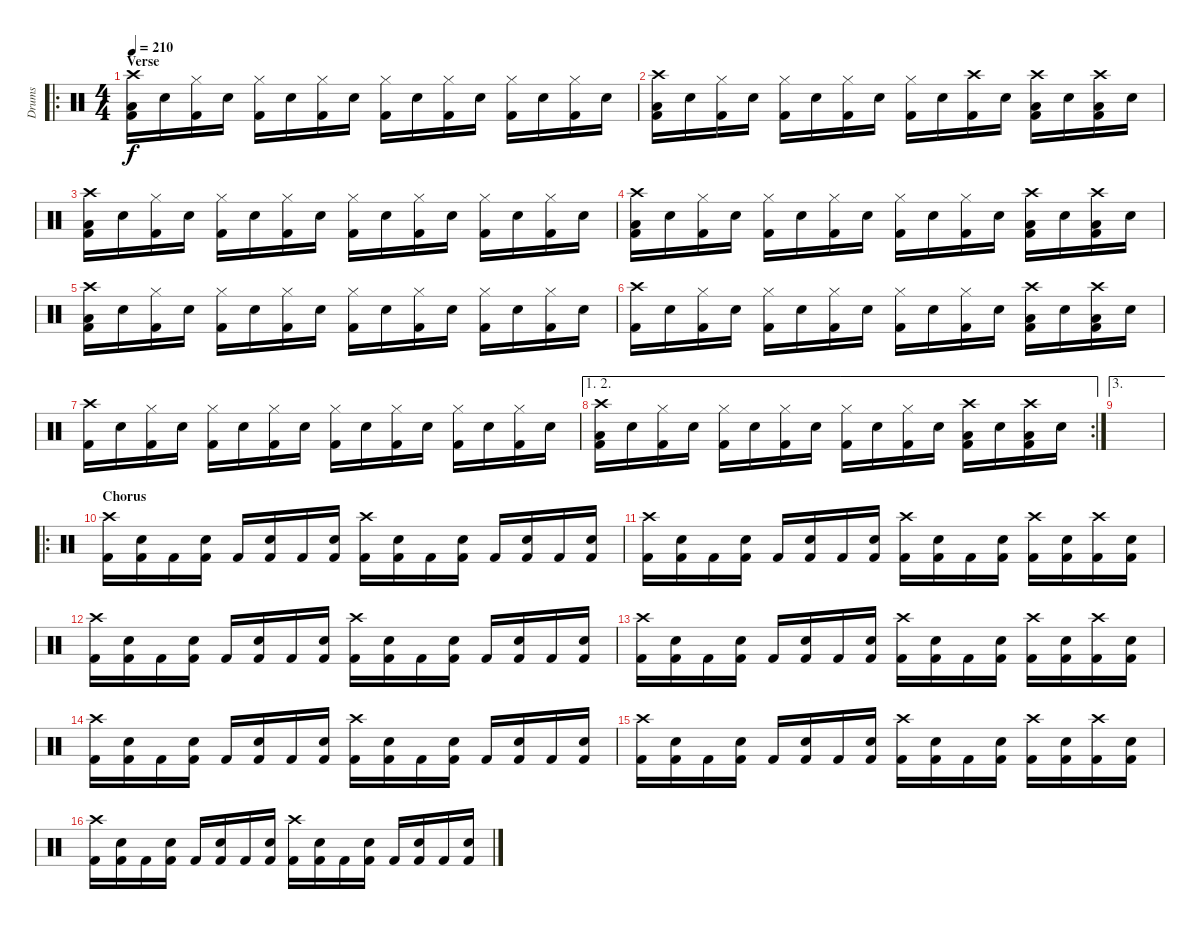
\track ("Drums" "Drums") {instrument percussion}
\staff {score}
\articulation defaults
\ro
\ts (4 4)
\section ("" "Verse")
\tempo 210
\clef neutral
\ks c
("Crash high (hit)" "Low Floor Tom (hit)" "Kick (hit) 2").16{dy f} "Snare (hit) 2".16 ("Hi-Hat (closed)" "Kick (hit) 2").16 "Snare (hit) 2".16 ("Hi-Hat (closed)" "Kick (hit) 2").16 "Snare (hit) 2".16 ("Hi-Hat (closed)" "Kick (hit) 2").16 "Snare (hit) 2".16 ("Hi-Hat (closed)" "Kick (hit) 2").16 "Snare (hit) 2".16 ("Hi-Hat (closed)" "Kick (hit) 2").16 "Snare (hit) 2".16 ("Hi-Hat (closed)" "Kick (hit) 2").16 "Snare (hit) 2".16 ("Hi-Hat (closed)" "Kick (hit) 2").16 "Snare (hit) 2".16 |
("Crash high (hit)" "Low Floor Tom (hit)" "Kick (hit) 2").16 "Snare (hit) 2".16 ("Hi-Hat (closed)" "Kick (hit) 2").16 "Snare (hit) 2".16 ("Hi-Hat (closed)" "Kick (hit) 2").16 "Snare (hit) 2".16 ("Hi-Hat (closed)" "Kick (hit) 2").16 "Snare (hit) 2".16 ("Hi-Hat (closed)" "Kick (hit) 2").16 "Snare (hit) 2".16 ("Crash high (hit)" "Kick (hit) 2").16 "Snare (hit) 2".16 ("Crash high (hit)" "Low Floor Tom (hit)" "Kick (hit) 2").16 "Snare (hit) 2".16 ("Crash high (hit)" "Low Floor Tom (hit)" "Kick (hit) 2").16 "Snare (hit) 2".16 |
("Crash high (hit)" "Low Floor Tom (hit)" "Kick (hit) 2").16 "Snare (hit) 2".16 ("Hi-Hat (closed)" "Kick (hit) 2").16 "Snare (hit) 2".16 ("Hi-Hat (closed)" "Kick (hit) 2").16 "Snare (hit) 2".16 ("Hi-Hat (closed)" "Kick (hit) 2").16 "Snare (hit) 2".16 ("Hi-Hat (closed)" "Kick (hit) 2").16 "Snare (hit) 2".16 ("Hi-Hat (closed)" "Kick (hit) 2").16 "Snare (hit) 2".16 ("Hi-Hat (closed)" "Kick (hit) 2").16 "Snare (hit) 2".16 ("Hi-Hat (closed)" "Kick (hit) 2").16 "Snare (hit) 2".16 |
("Crash high (hit)" "Low Floor Tom (hit)" "Kick (hit) 2").16 "Snare (hit) 2".16 ("Hi-Hat (closed)" "Kick (hit) 2").16 "Snare (hit) 2".16 ("Hi-Hat (closed)" "Kick (hit) 2").16 "Snare (hit) 2".16 ("Hi-Hat (closed)" "Kick (hit) 2").16 "Snare (hit) 2".16 ("Hi-Hat (closed)" "Kick (hit) 2").16 "Snare (hit) 2".16 ("Hi-Hat (closed)" "Kick (hit) 2").16 "Snare (hit) 2".16 ("Crash high (hit)" "Low Floor Tom (hit)" "Kick (hit) 2").16 "Snare (hit) 2".16 ("Crash high (hit)" "Low Floor Tom (hit)" "Kick (hit) 2").16 "Snare (hit) 2".16 |
("Crash high (hit)" "Low Floor Tom (hit)" "Kick (hit) 2").16 "Snare (hit) 2".16 ("Hi-Hat (closed)" "Kick (hit) 2").16 "Snare (hit) 2".16 ("Hi-Hat (closed)" "Kick (hit) 2").16 "Snare (hit) 2".16 ("Hi-Hat (closed)" "Kick (hit) 2").16 "Snare (hit) 2".16 ("Hi-Hat (closed)" "Kick (hit) 2").16 "Snare (hit) 2".16 ("Hi-Hat (closed)" "Kick (hit) 2").16 "Snare (hit) 2".16 ("Hi-Hat (closed)" "Kick (hit) 2").16 "Snare (hit) 2".16 ("Hi-Hat (closed)" "Kick (hit) 2").16 "Snare (hit) 2".16 |
("Crash high (hit)" "Kick (hit) 2").16 "Snare (hit) 2".16 ("Hi-Hat (closed)" "Kick (hit) 2").16 "Snare (hit) 2".16 ("Hi-Hat (closed)" "Kick (hit) 2").16 "Snare (hit) 2".16 ("Hi-Hat (closed)" "Kick (hit) 2").16 "Snare (hit) 2".16 ("Hi-Hat (closed)" "Kick (hit) 2").16 "Snare (hit) 2".16 ("Hi-Hat (closed)" "Kick (hit) 2").16 "Snare (hit) 2".16 ("Crash high (hit)" "Low Floor Tom (hit)" "Kick (hit) 2").16 "Snare (hit) 2".16 ("Crash high (hit)" "Low Floor Tom (hit)" "Kick (hit) 2").16 "Snare (hit) 2".16 |
("Crash high (hit)" "Kick (hit) 2").16 "Snare (hit) 2".16 ("Hi-Hat (closed)" "Kick (hit) 2").16 "Snare (hit) 2".16 ("Hi-Hat (closed)" "Kick (hit) 2").16 "Snare (hit) 2".16 ("Hi-Hat (closed)" "Kick (hit) 2").16 "Snare (hit) 2".16 ("Hi-Hat (closed)" "Kick (hit) 2").16 "Snare (hit) 2".16 ("Hi-Hat (closed)" "Kick (hit) 2").16 "Snare (hit) 2".16 ("Hi-Hat (closed)" "Kick (hit) 2").16 "Snare (hit) 2".16 ("Hi-Hat (closed)" "Kick (hit) 2").16 "Snare (hit) 2".16 |
\ae (1 2)
\rc 2
("Crash high (hit)" "Low Floor Tom (hit)" "Kick (hit) 2").16 "Snare (hit) 2".16 ("Hi-Hat (closed)" "Kick (hit) 2").16 "Snare (hit) 2".16 ("Hi-Hat (closed)" "Kick (hit) 2").16 "Snare (hit) 2".16 ("Hi-Hat (closed)" "Kick (hit) 2").16 "Snare (hit) 2".16 ("Hi-Hat (closed)" "Kick (hit) 2").16 "Snare (hit) 2".16 ("Hi-Hat (closed)" "Kick (hit) 2").16 "Snare (hit) 2".16 ("Crash high (hit)" "Low Floor Tom (hit)" "Kick (hit) 2").16 "Snare (hit) 2".16 ("Crash high (hit)" "Low Floor Tom (hit)" "Kick (hit) 2").16 "Snare (hit) 2".16 |
\ae 3
|
\ro
\section ("" "Chorus")
("Crash high (hit)" "Kick (hit) 2").16 ("Snare (hit) 2" "Kick (hit) 2").16 "Kick (hit) 2".16 ("Snare (hit) 2" "Kick (hit) 2").16 "Kick (hit) 2".16 ("Snare (hit) 2" "Kick (hit) 2").16 "Kick (hit) 2".16 ("Snare (hit) 2" "Kick (hit) 2").16 ("Crash high (hit)" "Kick (hit) 2").16 ("Snare (hit) 2" "Kick (hit) 2").16 "Kick (hit) 2".16 ("Snare (hit) 2" "Kick (hit) 2").16 "Kick (hit) 2".16 ("Snare (hit) 2" "Kick (hit) 2").16 "Kick (hit) 2".16 ("Snare (hit) 2" "Kick (hit) 2").16 |
("Crash high (hit)" "Kick (hit) 2").16 ("Snare (hit) 2" "Kick (hit) 2").16 "Kick (hit) 2".16 ("Snare (hit) 2" "Kick (hit) 2").16 "Kick (hit) 2".16 ("Snare (hit) 2" "Kick (hit) 2").16 "Kick (hit) 2".16 ("Snare (hit) 2" "Kick (hit) 2").16 ("Crash high (hit)" "Kick (hit) 2").16 ("Snare (hit) 2" "Kick (hit) 2").16 "Kick (hit) 2".16 ("Snare (hit) 2" "Kick (hit) 2").16 ("Crash high (hit)" "Kick (hit) 2").16 ("Snare (hit) 2" "Kick (hit) 2").16 ("Crash high (hit)" "Kick (hit) 2").16 ("Snare (hit) 2" "Kick (hit) 2").16 |
("Crash high (hit)" "Kick (hit) 2").16 ("Snare (hit) 2" "Kick (hit) 2").16 "Kick (hit) 2".16 ("Snare (hit) 2" "Kick (hit) 2").16 "Kick (hit) 2".16 ("Snare (hit) 2" "Kick (hit) 2").16 "Kick (hit) 2".16 ("Snare (hit) 2" "Kick (hit) 2").16 ("Crash high (hit)" "Kick (hit) 2").16 ("Snare (hit) 2" "Kick (hit) 2").16 "Kick (hit) 2".16 ("Snare (hit) 2" "Kick (hit) 2").16 "Kick (hit) 2".16 ("Snare (hit) 2" "Kick (hit) 2").16 "Kick (hit) 2".16 ("Snare (hit) 2" "Kick (hit) 2").16 |
("Crash high (hit)" "Kick (hit) 2").16 ("Snare (hit) 2" "Kick (hit) 2").16 "Kick (hit) 2".16 ("Snare (hit) 2" "Kick (hit) 2").16 "Kick (hit) 2".16 ("Snare (hit) 2" "Kick (hit) 2").16 "Kick (hit) 2".16 ("Snare (hit) 2" "Kick (hit) 2").16 ("Crash high (hit)" "Kick (hit) 2").16 ("Snare (hit) 2" "Kick (hit) 2").16 "Kick (hit) 2".16 ("Snare (hit) 2" "Kick (hit) 2").16 ("Crash high (hit)" "Kick (hit) 2").16 ("Snare (hit) 2" "Kick (hit) 2").16 ("Crash high (hit)" "Kick (hit) 2").16 ("Snare (hit) 2" "Kick (hit) 2").16 |
("Crash high (hit)" "Kick (hit) 2").16 ("Snare (hit) 2" "Kick (hit) 2").16 "Kick (hit) 2".16 ("Snare (hit) 2" "Kick (hit) 2").16 "Kick (hit) 2".16 ("Snare (hit) 2" "Kick (hit) 2").16 "Kick (hit) 2".16 ("Snare (hit) 2" "Kick (hit) 2").16 ("Crash high (hit)" "Kick (hit) 2").16 ("Snare (hit) 2" "Kick (hit) 2").16 "Kick (hit) 2".16 ("Snare (hit) 2" "Kick (hit) 2").16 "Kick (hit) 2".16 ("Snare (hit) 2" "Kick (hit) 2").16 "Kick (hit) 2".16 ("Snare (hit) 2" "Kick (hit) 2").16 |
("Crash high (hit)" "Kick (hit) 2").16 ("Snare (hit) 2" "Kick (hit) 2").16 "Kick (hit) 2".16 ("Snare (hit) 2" "Kick (hit) 2").16 "Kick (hit) 2".16 ("Snare (hit) 2" "Kick (hit) 2").16 "Kick (hit) 2".16 ("Snare (hit) 2" "Kick (hit) 2").16 ("Crash high (hit)" "Kick (hit) 2").16 ("Snare (hit) 2" "Kick (hit) 2").16 "Kick (hit) 2".16 ("Snare (hit) 2" "Kick (hit) 2").16 ("Crash high (hit)" "Kick (hit) 2").16 ("Snare (hit) 2" "Kick (hit) 2").16 ("Crash high (hit)" "Kick (hit) 2").16 ("Snare (hit) 2" "Kick (hit) 2").16 |
("Crash high (hit)" "Kick (hit) 2").16 ("Snare (hit) 2" "Kick (hit) 2").16 "Kick (hit) 2".16 ("Snare (hit) 2" "Kick (hit) 2").16 "Kick (hit) 2".16 ("Snare (hit) 2" "Kick (hit) 2").16 "Kick (hit) 2".16 ("Snare (hit) 2" "Kick (hit) 2").16 ("Crash high (hit)" "Kick (hit) 2").16 ("Snare (hit) 2" "Kick (hit) 2").16 "Kick (hit) 2".16 ("Snare (hit) 2" "Kick (hit) 2").16 "Kick (hit) 2".16 ("Snare (hit) 2" "Kick (hit) 2").16 "Kick (hit) 2".16 ("Snare (hit) 2" "Kick (hit) 2").16
